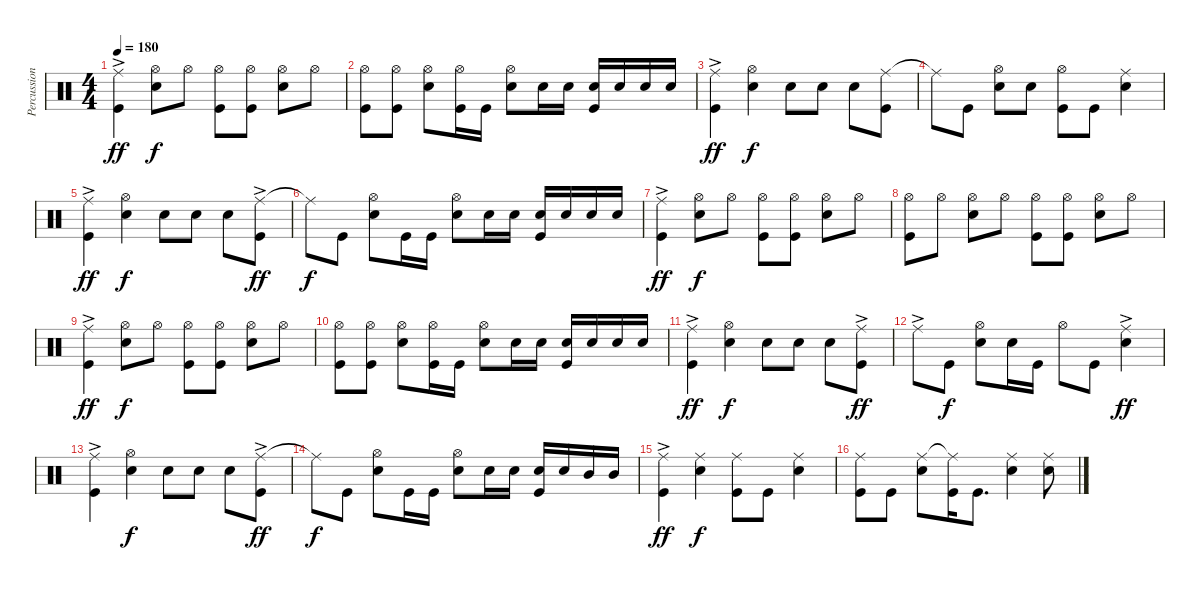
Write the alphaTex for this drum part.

\track ("Percussion" "Percussion") {instrument percussion}
\staff {score}
\articulation defaults
\ts (4 4)
\tempo 180
\clef neutral
\ks c
("Ride (middle)"{ac} "Kick (hit)").4{dy ff} ("Hi-Hat (open)" "Snare (hit) 2").8{dy f} "Hi-Hat (open)".8 ("Hi-Hat (open)" "Kick (hit)").8 ("Hi-Hat (open)" "Kick (hit)").8 ("Hi-Hat (open)" "Snare (hit) 2").8 "Hi-Hat (open)".8 |
("Hi-Hat (open)" "Kick (hit)").8 ("Hi-Hat (open)" "Kick (hit)").8 ("Hi-Hat (open)" "Snare (hit) 2").8 ("Hi-Hat (open)" "Kick (hit)").16 "Kick (hit)".16 ("Hi-Hat (open)" "Snare (hit) 2").8 "Snare (hit) 2".16 "Snare (hit) 2".16 ("Snare (hit) 2" "Kick (hit)").16 "Snare (hit) 2".16 "Snare (hit) 2".16 "Snare (hit) 2".16 |
("Ride (middle)"{ac} "Kick (hit)").4{dy ff} ("Hi-Hat (open)" "Snare (hit) 2").4{dy f} "Snare (hit) 2".8 "Snare (hit) 2".8 "Snare (hit) 2".8 ("Ride (middle)" "Kick (hit)").8 |
"Ride (middle)"{t}.8 "Kick (hit)".8 ("Hi-Hat (open)" "Snare (hit) 2").8 "Snare (hit) 2".8 ("Hi-Hat (open)" "Kick (hit)").8 "Kick (hit)".8 ("Ride (middle)" "Snare (hit) 2").4 |
("Ride (middle)"{ac} "Kick (hit)").4{dy ff} ("Hi-Hat (open)" "Snare (hit) 2").4{dy f} "Snare (hit) 2".8 "Snare (hit) 2".8 "Snare (hit) 2".8 ("Ride (middle)"{ac} "Kick (hit)").8{dy ff} |
"Ride (middle)"{t}.8{dy f} "Kick (hit)".8 ("Hi-Hat (open)" "Snare (hit) 2").8 "Kick (hit)".16 "Kick (hit)".16 ("Hi-Hat (open)" "Snare (hit) 2").8 "Snare (hit) 2".16 "Snare (hit) 2".16 ("Snare (hit) 2" "Kick (hit)").16 "Snare (hit) 2".16 "Snare (hit) 2".16 "Snare (hit) 2".16 |
("Ride (middle)"{ac} "Kick (hit)").4{dy ff} ("Hi-Hat (open)" "Snare (hit) 2").8{dy f} "Hi-Hat (open)".8 ("Hi-Hat (open)" "Kick (hit)").8 ("Hi-Hat (open)" "Kick (hit)").8 ("Hi-Hat (open)" "Snare (hit) 2").8 "Hi-Hat (open)".8 |
("Hi-Hat (open)" "Kick (hit)").8 "Hi-Hat (open)".8 ("Hi-Hat (open)" "Snare (hit) 2").8 "Hi-Hat (open)".8 ("Hi-Hat (open)" "Kick (hit)").8 ("Hi-Hat (open)" "Kick (hit)").8 ("Hi-Hat (open)" "Snare (hit) 2").8 "Hi-Hat (open)".8 |
("Ride (middle)"{ac} "Kick (hit)").4{dy ff} ("Hi-Hat (open)" "Snare (hit) 2").8{dy f} "Hi-Hat (open)".8 ("Hi-Hat (open)" "Kick (hit)").8 ("Hi-Hat (open)" "Kick (hit)").8 ("Hi-Hat (open)" "Snare (hit) 2").8 "Hi-Hat (open)".8 |
("Hi-Hat (open)" "Kick (hit)").8 ("Hi-Hat (open)" "Kick (hit)").8 ("Hi-Hat (open)" "Snare (hit) 2").8 ("Hi-Hat (open)" "Kick (hit)").16 "Kick (hit)".16 ("Hi-Hat (open)" "Snare (hit) 2").8 "Snare (hit) 2".16 "Snare (hit) 2".16 ("Snare (hit) 2" "Kick (hit)").16 "Snare (hit) 2".16 "Snare (hit) 2".16 "Snare (hit) 2".16 |
("Ride (middle)"{ac} "Kick (hit)").4{dy ff} ("Hi-Hat (open)" "Snare (hit) 2").4{dy f} "Snare (hit) 2".8 "Snare (hit) 2".8 "Snare (hit) 2".8 ("Ride (middle)"{ac} "Kick (hit)").8{dy ff} |
"Ride (middle)"{ac}.8 "Kick (hit)".8{dy f} ("Hi-Hat (open)" "Snare (hit) 2").8 "Snare (hit) 2".16 "Kick (hit)".16 "Hi-Hat (open)".8 "Kick (hit)".8 ("Ride (middle)"{ac} "Snare (hit) 2").4{dy ff} |
("Ride (middle)"{ac} "Kick (hit)").4 ("Hi-Hat (open)" "Snare (hit) 2").4{dy f} "Snare (hit) 2".8 "Snare (hit) 2".8 "Snare (hit) 2".8 ("Ride (middle)"{ac} "Kick (hit)").8{dy ff} |
"Ride (middle)"{t}.8{dy f} "Kick (hit)".8 ("Hi-Hat (open)" "Snare (hit) 2").8 "Kick (hit)".16 "Kick (hit)".16 ("Hi-Hat (open)" "Snare (hit) 2").8 "Snare (hit) 2".16 "Snare (hit) 2".16 ("Snare (hit) 2" "Kick (hit)").16 "Snare (hit) 2".16 "Mid Tom (hit)".16 "Mid Tom (hit)".16 |
("Ride (middle)"{ac} "Kick (hit)").4{dy ff} ("Ride (middle)" "Snare (hit) 2").4{dy f} ("Ride (middle)" "Kick (hit)").8 "Kick (hit)".8 ("Ride (middle)" "Snare (hit) 2").4 |
("Ride (middle)" "Kick (hit)").8 "Kick (hit)".8 ("Ride (middle)" "Snare (hit) 2").8 ("Ride (middle)"{t} "Kick (hit)").16 "Kick (hit)".8{d} ("Ride (middle)" "Snare (hit) 2").4 ("Ride (middle)" "Snare (hit) 2").8
